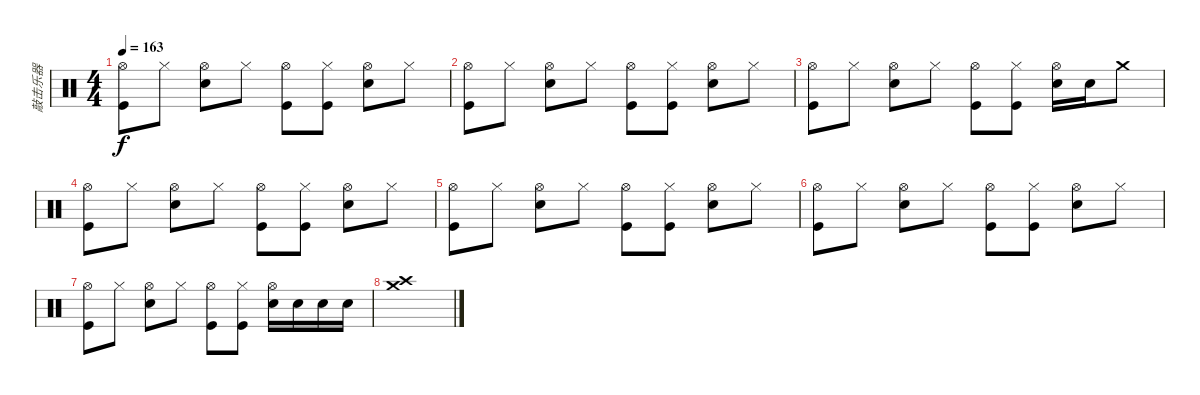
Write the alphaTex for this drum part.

\track ("敲击乐器" "敲击乐器") {instrument percussion}
\staff {score}
\articulation defaults
\ts (4 4)
\tempo 163
\clef neutral
\ks c
("Hi-Hat (open)" "Kick (hit)").8{dy f} "Hi-Hat (closed)".8 ("Hi-Hat (open)" "Snare (hit) 2").8 "Hi-Hat (closed)".8 ("Hi-Hat (open)" "Kick (hit)").8 ("Hi-Hat (closed)" "Kick (hit)").8 ("Hi-Hat (open)" "Snare (hit) 2").8 "Hi-Hat (closed)".8 |
("Hi-Hat (open)" "Kick (hit)").8 "Hi-Hat (closed)".8 ("Hi-Hat (open)" "Snare (hit) 2").8 "Hi-Hat (closed)".8 ("Hi-Hat (open)" "Kick (hit)").8 ("Hi-Hat (closed)" "Kick (hit)").8 ("Hi-Hat (open)" "Snare (hit) 2").8 "Hi-Hat (closed)".8 |
("Hi-Hat (open)" "Kick (hit)").8 "Hi-Hat (closed)".8 ("Hi-Hat (open)" "Snare (hit) 2").8 "Hi-Hat (closed)".8 ("Hi-Hat (open)" "Kick (hit)").8 ("Hi-Hat (closed)" "Kick (hit)").8 ("Hi-Hat (open)" "Snare (hit) 2").16 "Snare (hit) 2".16 "Crash medium (hit)".8 |
("Hi-Hat (open)" "Kick (hit)").8 "Hi-Hat (closed)".8 ("Hi-Hat (open)" "Snare (hit) 2").8 "Hi-Hat (closed)".8 ("Hi-Hat (open)" "Kick (hit)").8 ("Hi-Hat (closed)" "Kick (hit)").8 ("Hi-Hat (open)" "Snare (hit) 2").8 "Hi-Hat (closed)".8 |
("Hi-Hat (open)" "Kick (hit)").8 "Hi-Hat (closed)".8 ("Hi-Hat (open)" "Snare (hit) 2").8 "Hi-Hat (closed)".8 ("Hi-Hat (open)" "Kick (hit)").8 ("Hi-Hat (closed)" "Kick (hit)").8 ("Hi-Hat (open)" "Snare (hit) 2").8 "Hi-Hat (closed)".8 |
("Hi-Hat (open)" "Kick (hit)").8 "Hi-Hat (closed)".8 ("Hi-Hat (open)" "Snare (hit) 2").8 "Hi-Hat (closed)".8 ("Hi-Hat (open)" "Kick (hit)").8 ("Hi-Hat (closed)" "Kick (hit)").8 ("Hi-Hat (open)" "Snare (hit) 2").8 "Hi-Hat (closed)".8 |
("Hi-Hat (open)" "Kick (hit)").8 "Hi-Hat (closed)".8 ("Hi-Hat (open)" "Snare (hit) 2").8 "Hi-Hat (closed)".8 ("Hi-Hat (open)" "Kick (hit)").8 ("Hi-Hat (closed)" "Kick (hit)").8 ("Hi-Hat (open)" "Snare (hit) 2").16 "Snare (hit) 2".16 "Snare (hit) 2".16 "Snare (hit) 2".16 |
("Crash medium (hit)" "Crash high (hit)").1
